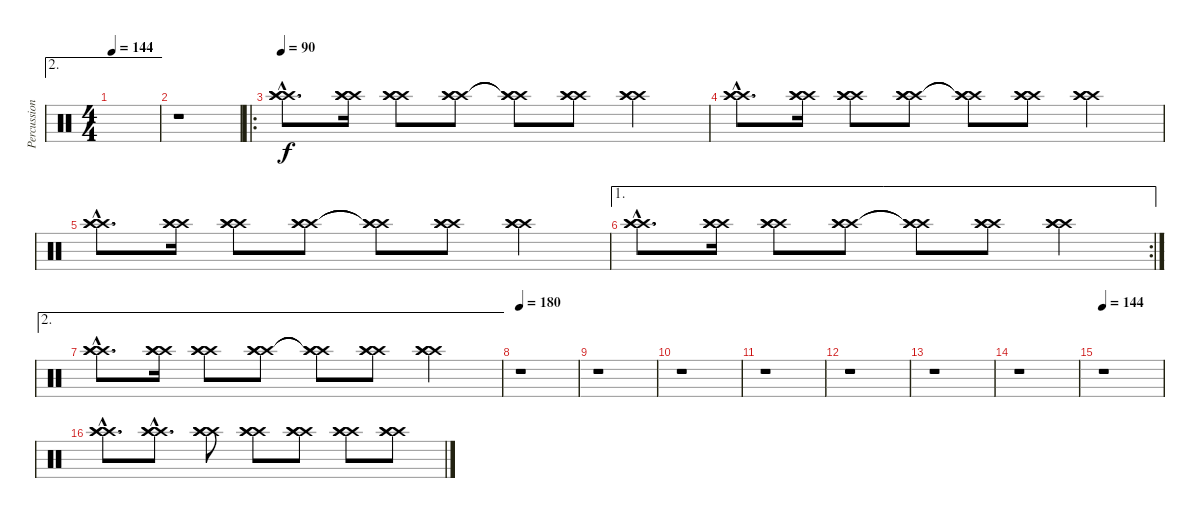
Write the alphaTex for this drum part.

\track ("Percussion 2" "Percussion") {instrument percussion}
\staff {score}
\articulation defaults
\ae 2
\ts (4 4)
\tempo 144
\clef neutral
\ks c
|
r.1 |
\ro
\tempo 90
("Crash high (hit)"{hac} "Crash high (hit)"{hac} "Crash high (hit)"{hac}).8{d} ("Crash high (hit)" "Crash high (hit)" "Crash high (hit)").16 ("Crash high (hit)" "Crash high (hit)" "Crash high (hit)").8 ("Crash high (hit)" "Crash high (hit)" "Crash high (hit)").8 ("Crash high (hit)"{t} "Crash high (hit)"{t} "Crash high (hit)"{t}).8 ("Crash high (hit)" "Crash high (hit)" "Crash high (hit)").8 ("Crash high (hit)" "Crash high (hit)" "Crash high (hit)").4 |
("Crash high (hit)"{hac} "Crash high (hit)"{hac} "Crash high (hit)"{hac}).8{d} ("Crash high (hit)" "Crash high (hit)" "Crash high (hit)").16 ("Crash high (hit)" "Crash high (hit)" "Crash high (hit)").8 ("Crash high (hit)" "Crash high (hit)" "Crash high (hit)").8 ("Crash high (hit)"{t} "Crash high (hit)"{t} "Crash high (hit)"{t}).8 ("Crash high (hit)" "Crash high (hit)" "Crash high (hit)").8 ("Crash high (hit)" "Crash high (hit)" "Crash high (hit)").4 |
("Crash high (hit)"{hac} "Crash high (hit)"{hac} "Crash high (hit)"{hac}).8{d} ("Crash high (hit)" "Crash high (hit)" "Crash high (hit)").16 ("Crash high (hit)" "Crash high (hit)" "Crash high (hit)").8 ("Crash high (hit)" "Crash high (hit)" "Crash high (hit)").8 ("Crash high (hit)"{t} "Crash high (hit)"{t} "Crash high (hit)"{t}).8 ("Crash high (hit)" "Crash high (hit)" "Crash high (hit)").8 ("Crash high (hit)" "Crash high (hit)" "Crash high (hit)").4 |
\ae 1
\rc 2
("Crash high (hit)"{hac} "Crash high (hit)"{hac} "Crash high (hit)"{hac}).8{d} ("Crash high (hit)" "Crash high (hit)" "Crash high (hit)").16 ("Crash high (hit)" "Crash high (hit)" "Crash high (hit)").8 ("Crash high (hit)" "Crash high (hit)" "Crash high (hit)").8 ("Crash high (hit)"{t} "Crash high (hit)"{t} "Crash high (hit)"{t}).8 ("Crash high (hit)" "Crash high (hit)" "Crash high (hit)").8 ("Crash high (hit)" "Crash high (hit)" "Crash high (hit)").4 |
\ae 2
("Crash high (hit)"{hac} "Crash high (hit)"{hac} "Crash high (hit)"{hac}).8{d} ("Crash high (hit)" "Crash high (hit)" "Crash high (hit)").16 ("Crash high (hit)" "Crash high (hit)" "Crash high (hit)").8 ("Crash high (hit)" "Crash high (hit)" "Crash high (hit)").8 ("Crash high (hit)"{t} "Crash high (hit)"{t} "Crash high (hit)"{t}).8 ("Crash high (hit)" "Crash high (hit)" "Crash high (hit)").8 ("Crash high (hit)" "Crash high (hit)" "Crash high (hit)").4 |
\tempo 180
r.1 |
r.1 |
r.1 |
r.1 |
r.1 |
r.1 |
r.1 |
\tempo 144
r.1 |
("Crash high (hit)"{hac} "Crash high (hit)"{hac} "Crash high (hit)"{hac}).8{d} ("Crash high (hit)"{hac} "Crash high (hit)" "Crash high (hit)").8{d} ("Crash high (hit)" "Crash high (hit)" "Crash high (hit)").8 ("Crash high (hit)" "Crash high (hit)" "Crash high (hit)").8 ("Crash high (hit)" "Crash high (hit)" "Crash high (hit)").8 ("Crash high (hit)" "Crash high (hit)" "Crash high (hit)").8 ("Crash high (hit)" "Crash high (hit)" "Crash high (hit)").8
